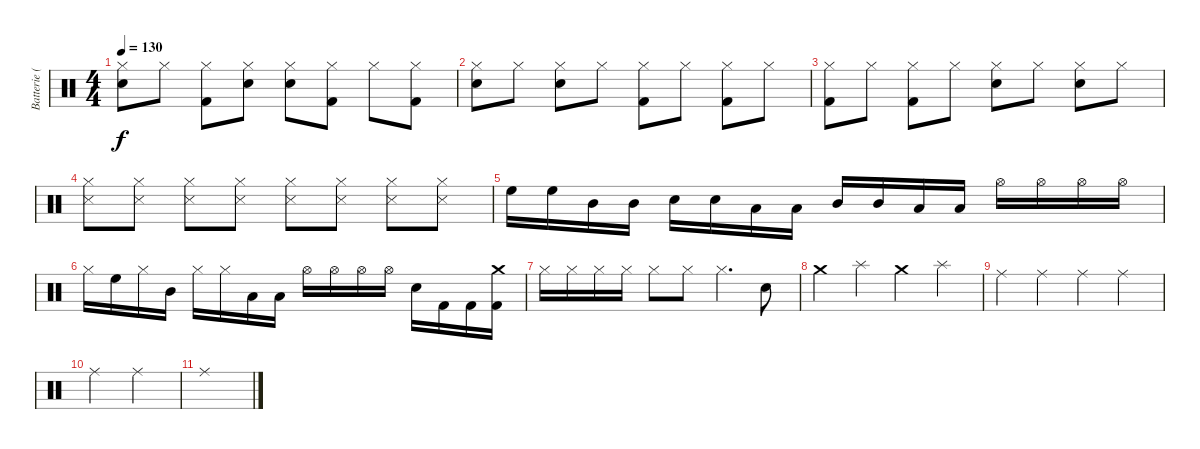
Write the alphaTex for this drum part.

\track ("Batterie (Batmo)" "Batterie (") {instrument percussion}
\staff {score}
\articulation defaults
\ts (4 4)
\tempo 130
\clef neutral
\ks c
("Hi-Hat (closed)" "Snare (hit) 2").8{dy f} "Hi-Hat (closed)".8 ("Hi-Hat (closed)" "Kick (hit) 2").8 ("Hi-Hat (closed)" "Snare (hit) 2").8 ("Hi-Hat (closed)" "Snare (hit) 2").8 ("Hi-Hat (closed)" "Kick (hit) 2").8 "Hi-Hat (closed)".8 ("Hi-Hat (closed)" "Kick (hit) 2").8 |
("Hi-Hat (closed)" "Snare (hit) 2").8 "Hi-Hat (closed)".8 ("Hi-Hat (closed)" "Snare (hit) 2").8 "Hi-Hat (closed)".8 ("Hi-Hat (closed)" "Kick (hit) 2").8 "Hi-Hat (closed)".8 ("Hi-Hat (closed)" "Kick (hit) 2").8 "Hi-Hat (closed)".8 |
("Hi-Hat (closed)" "Kick (hit) 2").8 "Hi-Hat (closed)".8 ("Hi-Hat (closed)" "Kick (hit) 2").8 "Hi-Hat (closed)".8 ("Hi-Hat (closed)" "Snare (hit) 2").8 "Hi-Hat (closed)".8 ("Hi-Hat (closed)" "Snare (hit) 2").8 "Hi-Hat (closed)".8 |
("Hi-Hat (closed)" "Snare (side stick) 3").8 ("Hi-Hat (closed)" "Snare (side stick) 3").8 ("Hi-Hat (closed)" "Snare (side stick) 3").8 ("Hi-Hat (closed)" "Snare (side stick) 3").8 ("Hi-Hat (closed)" "Snare (side stick) 3").8 ("Hi-Hat (closed)" "Snare (side stick) 3").8 ("Hi-Hat (closed)" "Snare (side stick) 3").8 ("Hi-Hat (closed)" "Snare (side stick) 3").8 |
"High Floor Tom (hit)".16 "High Floor Tom (hit)".16 "Mid Tom (hit)".16 "Mid Tom (hit)".16 "Snare (hit) 2".16 "Snare (hit) 2".16 "Low Tom (hit)".16 "Low Tom (hit)".16 "Mid Tom (hit)".16 "Mid Tom (hit)".16 "Low Floor Tom (hit)".16 "Low Floor Tom (hit)".16 "Hi-Hat (open)".16 "Hi-Hat (open)".16 "Hi-Hat (open)".16 "Hi-Hat (open)".16 |
"Hi-Hat (closed)".16 "High Floor Tom (hit)".16 "Hi-Hat (closed)".16 "Mid Tom (hit)".16 "Hi-Hat (closed)".16 "Hi-Hat (closed)".16 "Low Tom (hit)".16 "Low Tom (hit)".16 "Hi-Hat (open)".16 "Hi-Hat (open)".16 "Hi-Hat (open)".16 "Hi-Hat (open)".16 "Snare (hit) 2".16 "Kick (hit) 2".16 "Kick (hit) 2".16 ("Crash medium (hit)" "Kick (hit) 2").16 |
"Hi-Hat (closed)".16 "Hi-Hat (closed)".16 "Hi-Hat (closed)".16 "Hi-Hat (closed)".16 "Hi-Hat (closed)".8 "Hi-Hat (closed)".8 "Hi-Hat (closed)".4{d} "Snare (hit) 2".8 |
"Crash medium (hit)".4 "Splash (hit)".4 "Crash medium (hit)".4 "Splash (hit)".4 |
"Ride (middle)".4 "Ride (middle)".4 "Ride (middle)".4 "Ride (middle)".4 |
"Ride (middle)".2 "Ride (middle)".2 |
"Ride (middle)".1
